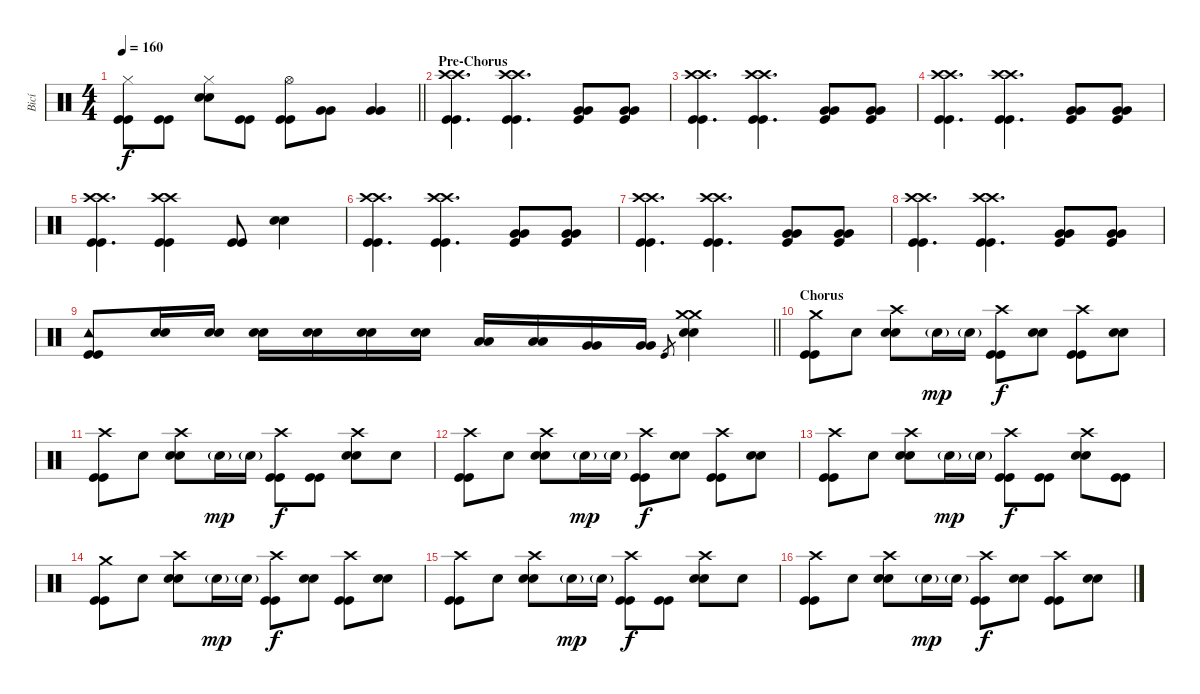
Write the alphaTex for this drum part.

\track ("Bicí" "Bicí") {instrument percussion}
\staff {score}
\articulation defaults
\ts (4 4)
\tempo 160
\clef neutral
\barLineRight lightlight
\ks c
("Hi-Hat (closed)" "Kick (hit)" "Kick (hit)").8{dy f} ("Kick (hit)" "Kick (hit)").8 ("Hi-Hat (closed)" "Electric Snare (hit)" "Electric Snare (hit)").8 ("Kick (hit)" "Kick (hit)").8 ("Hi-Hat (open)" "Kick (hit)" "Kick (hit)").8 ("Very Low Tom (hit)" "Very Low Tom (hit)").8 ("Very Low Tom (hit)" "Very Low Tom (hit)").4 |
\section ("" "Pre-Chorus")
("Crash high (hit)" "Crash high (hit)" "Kick (hit)" "Kick (hit)").4{d} ("Crash high (hit)" "Crash high (hit)" "Kick (hit)" "Kick (hit)").4{d} ("Very Low Tom (hit)" "Very Low Tom (hit)" "Kick (hit)").8 ("Very Low Tom (hit)" "Very Low Tom (hit)" "Kick (hit)").8 |
("Crash high (hit)" "Crash high (hit)" "Kick (hit)" "Kick (hit)").4{d} ("Crash high (hit)" "Crash high (hit)" "Kick (hit)" "Kick (hit)").4{d} ("Very Low Tom (hit)" "Very Low Tom (hit)" "Kick (hit)").8 ("Very Low Tom (hit)" "Very Low Tom (hit)" "Kick (hit)").8 |
("Crash high (hit)" "Crash high (hit)" "Kick (hit)" "Kick (hit)").4{d} ("Crash high (hit)" "Crash high (hit)" "Kick (hit)" "Kick (hit)").4{d} ("Very Low Tom (hit)" "Very Low Tom (hit)" "Kick (hit)").8 ("Very Low Tom (hit)" "Very Low Tom (hit)" "Kick (hit)").8 |
("Crash high (hit)" "Crash high (hit)" "Kick (hit)" "Kick (hit)").4{d} ("Crash high (hit)" "Crash high (hit)" "Kick (hit)" "Kick (hit)").4 ("Kick (hit)" "Kick (hit)").8 ("Electric Snare (hit)" "Electric Snare (hit)").4 |
("Crash high (hit)" "Crash high (hit)" "Kick (hit)" "Kick (hit)").4{d} ("Crash high (hit)" "Crash high (hit)" "Kick (hit)" "Kick (hit)").4{d} ("Very Low Tom (hit)" "Very Low Tom (hit)" "Kick (hit)").8 ("Very Low Tom (hit)" "Very Low Tom (hit)" "Kick (hit)").8 |
("Crash high (hit)" "Crash high (hit)" "Kick (hit)" "Kick (hit)").4{d} ("Crash high (hit)" "Crash high (hit)" "Kick (hit)" "Kick (hit)").4{d} ("Very Low Tom (hit)" "Very Low Tom (hit)" "Kick (hit)").8 ("Very Low Tom (hit)" "Very Low Tom (hit)" "Kick (hit)").8 |
("Crash high (hit)" "Crash high (hit)" "Kick (hit)" "Kick (hit)").4{d} ("Crash high (hit)" "Crash high (hit)" "Kick (hit)" "Kick (hit)").4{d} ("Very Low Tom (hit)" "Very Low Tom (hit)" "Kick (hit)").8 ("Very Low Tom (hit)" "Very Low Tom (hit)" "Kick (hit)").8 |
\barLineRight lightlight
("Tambourine (hit)" "Kick (hit)" "Kick (hit)").8 ("Electric Snare (hit)" "Electric Snare (hit)").16 ("Electric Snare (hit)" "Electric Snare (hit)").16 ("Electric Snare (hit)" "Electric Snare (hit)").16 ("Electric Snare (hit)" "Electric Snare (hit)").16 ("Electric Snare (hit)" "Electric Snare (hit)").16 ("Electric Snare (hit)" "Electric Snare (hit)").16 ("Low Tom (hit)" "Low Tom (hit)").16 ("Low Tom (hit)" "Low Tom (hit)").16 ("Very Low Tom (hit)" "Very Low Tom (hit)").16 ("Very Low Tom (hit)" "Very Low Tom (hit)").16 "Kick (hit)".8{gr} ("Crash medium (hit)" "Crash medium (hit)" "Electric Snare (hit)" "Electric Snare (hit)").4 |
\section ("" "Chorus")
("Crash medium (hit)" "Kick (hit)" "Kick (hit)").8 "Snare (hit)".8 ("Crash high (hit)" "Electric Snare (hit)" "Electric Snare (hit)").8 "Electric Snare (hit)"{g}.16{dy mp} "Electric Snare (hit)"{g}.16 ("Crash high (hit)" "Kick (hit)" "Kick (hit)").8{dy f} ("Electric Snare (hit)" "Electric Snare (hit)").8 ("Crash high (hit)" "Kick (hit)" "Kick (hit)").8 ("Electric Snare (hit)" "Electric Snare (hit)").8 |
("Crash high (hit)" "Kick (hit)" "Kick (hit)").8 "Snare (hit)".8 ("Crash high (hit)" "Electric Snare (hit)" "Electric Snare (hit)").8 "Electric Snare (hit)"{g}.16{dy mp} "Electric Snare (hit)"{g}.16 ("Crash high (hit)" "Kick (hit)" "Kick (hit)").8{dy f} ("Kick (hit)" "Kick (hit)").8 ("Crash high (hit)" "Electric Snare (hit)" "Electric Snare (hit)").8 "Snare (hit)".8 |
("Crash high (hit)" "Kick (hit)" "Kick (hit)").8 "Snare (hit)".8 ("Crash high (hit)" "Electric Snare (hit)" "Electric Snare (hit)").8 "Electric Snare (hit)"{g}.16{dy mp} "Electric Snare (hit)"{g}.16 ("Crash high (hit)" "Kick (hit)" "Kick (hit)").8{dy f} ("Electric Snare (hit)" "Electric Snare (hit)").8 ("Crash high (hit)" "Kick (hit)" "Kick (hit)").8 ("Electric Snare (hit)" "Electric Snare (hit)").8 |
("Crash high (hit)" "Kick (hit)" "Kick (hit)").8 "Snare (hit)".8 ("Crash high (hit)" "Electric Snare (hit)" "Electric Snare (hit)").8 "Electric Snare (hit)"{g}.16{dy mp} "Electric Snare (hit)"{g}.16 ("Crash high (hit)" "Kick (hit)" "Kick (hit)").8{dy f} ("Kick (hit)" "Kick (hit)").8 ("Crash high (hit)" "Electric Snare (hit)" "Electric Snare (hit)").8 ("Kick (hit)" "Kick (hit)").8 |
("Crash medium (hit)" "Kick (hit)" "Kick (hit)").8 "Snare (hit)".8 ("Crash high (hit)" "Electric Snare (hit)" "Electric Snare (hit)").8 "Electric Snare (hit)"{g}.16{dy mp} "Electric Snare (hit)"{g}.16 ("Crash high (hit)" "Kick (hit)" "Kick (hit)").8{dy f} ("Electric Snare (hit)" "Electric Snare (hit)").8 ("Crash high (hit)" "Kick (hit)" "Kick (hit)").8 ("Electric Snare (hit)" "Electric Snare (hit)").8 |
("Crash high (hit)" "Kick (hit)" "Kick (hit)").8 "Snare (hit)".8 ("Crash high (hit)" "Electric Snare (hit)" "Electric Snare (hit)").8 "Electric Snare (hit)"{g}.16{dy mp} "Electric Snare (hit)"{g}.16 ("Crash high (hit)" "Kick (hit)" "Kick (hit)").8{dy f} ("Kick (hit)" "Kick (hit)").8 ("Crash high (hit)" "Electric Snare (hit)" "Electric Snare (hit)").8 "Snare (hit)".8 |
("Crash high (hit)" "Kick (hit)" "Kick (hit)").8 "Snare (hit)".8 ("Crash high (hit)" "Electric Snare (hit)" "Electric Snare (hit)").8 "Electric Snare (hit)"{g}.16{dy mp} "Electric Snare (hit)"{g}.16 ("Crash high (hit)" "Kick (hit)" "Kick (hit)").8{dy f} ("Electric Snare (hit)" "Electric Snare (hit)").8 ("Crash high (hit)" "Kick (hit)" "Kick (hit)").8 ("Electric Snare (hit)" "Electric Snare (hit)").8
